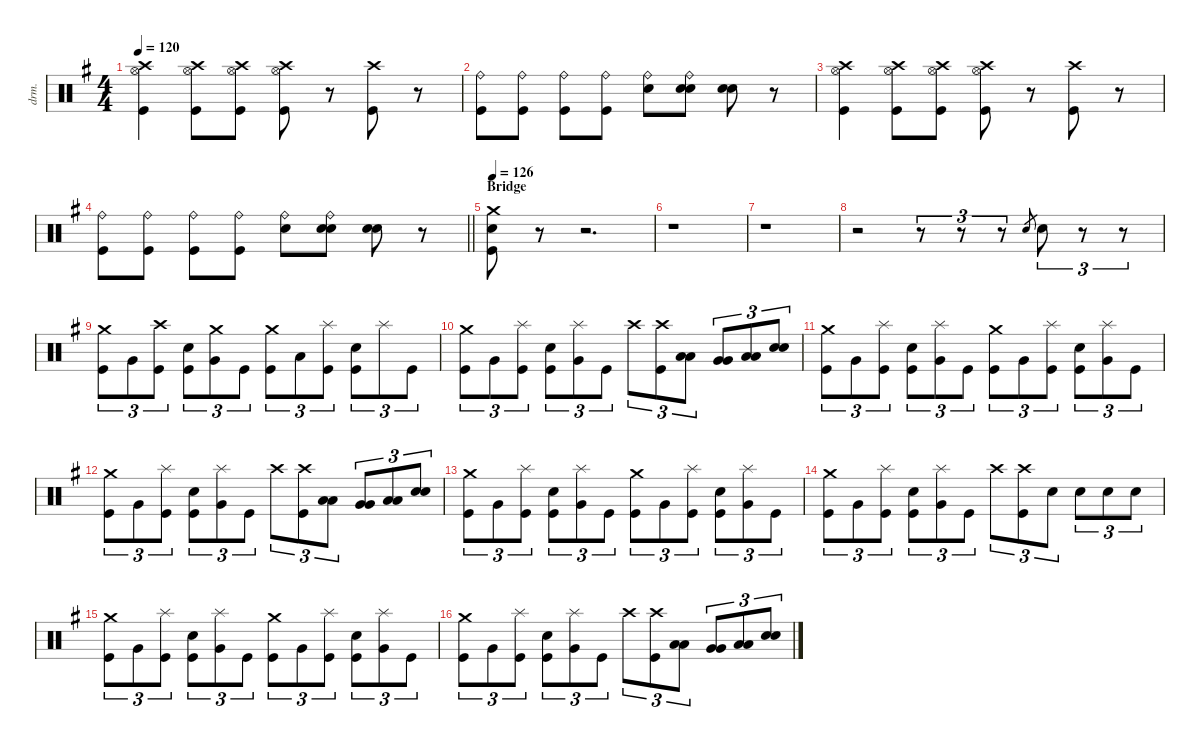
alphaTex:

\defaultSystemsLayout 4
\hideDynamics
\bracketExtendMode nobrackets
\track ("Drums (Bill Ward)" "drm.") {instrument percussion}
\staff {score}
\articulation defaults
\ts (4 4)
\tempo 120
\clef neutral
\ks g
("Crash high (hit)"{acc forcenatural} "Hi-Hat (open)"{acc forcenatural} "Kick (hit)"{acc forcenatural}).4{dy f} ("Crash high (hit)"{acc forcenatural} "Hi-Hat (open)"{acc forcenatural} "Kick (hit)"{acc forcenatural}).8 ("Crash high (hit)"{acc forcenatural} "Hi-Hat (open)"{acc forcenatural} "Kick (hit)"{acc forcenatural}).8 ("Crash high (hit)"{acc forcenatural} "Hi-Hat (open)"{acc forcenatural} "Kick (hit)"{acc forcenatural}).8 r.8 ("Crash high (hit)"{acc forcenatural} "Kick (hit)"{acc forcenatural}).8 r.8 |
("Ride (bell)"{acc forcenatural} "Kick (hit)"{acc forcenatural}).8 ("Ride (bell)"{acc forcenatural} "Kick (hit)"{acc forcenatural}).8 ("Ride (bell)"{acc forcenatural} "Kick (hit)"{acc forcenatural}).8 ("Ride (bell)"{acc forcenatural} "Kick (hit)"{acc forcenatural}).8 ("Ride (bell)"{acc forcenatural} "Snare (hit) 2"{acc forcenatural}).8 ("Ride (bell)"{acc forcenatural} "Snare (hit) 2"{acc forcenatural} "Snare (hit) 2"{acc forcenatural}).8 ("Snare (hit) 2"{acc forcenatural} "Snare (hit) 2"{acc forcenatural}).8{dy ff} r.8 |
("Crash high (hit)"{acc forcenatural} "Hi-Hat (open)"{acc forcenatural} "Kick (hit)"{acc forcenatural}).4{dy f} ("Crash high (hit)"{acc forcenatural} "Hi-Hat (open)"{acc forcenatural} "Kick (hit)"{acc forcenatural}).8 ("Crash high (hit)"{acc forcenatural} "Hi-Hat (open)"{acc forcenatural} "Kick (hit)"{acc forcenatural}).8 ("Crash high (hit)"{acc forcenatural} "Hi-Hat (open)"{acc forcenatural} "Kick (hit)"{acc forcenatural}).8 r.8 ("Crash high (hit)"{acc forcenatural} "Kick (hit)"{acc forcenatural}).8 r.8 |
\barLineRight lightlight
("Ride (bell)"{acc forcenatural} "Kick (hit)"{acc forcenatural}).8 ("Ride (bell)"{acc forcenatural} "Kick (hit)"{acc forcenatural}).8 ("Ride (bell)"{acc forcenatural} "Kick (hit)"{acc forcenatural}).8 ("Ride (bell)"{acc forcenatural} "Kick (hit)"{acc forcenatural}).8 ("Ride (bell)"{acc forcenatural} "Snare (hit) 2"{acc forcenatural}).8 ("Ride (bell)"{acc forcenatural} "Snare (hit) 2"{acc forcenatural} "Snare (hit) 2"{acc forcenatural}).8 ("Snare (hit) 2"{acc forcenatural} "Snare (hit) 2"{acc forcenatural}).8{dy ff} r.8 |
\section ("" "Bridge")
\tempo 126
("Crash medium (hit)"{acc forcenatural} "Snare (hit) 2"{acc forcenatural} "Kick (hit)"{acc forcenatural}).8{dy f} r.8 r.2{d} |
r.1 |
r.1 |
r.2 r.8{tu (3 2)} r.8{tu (3 2)} r.8{tu (3 2)} "Electric Snare (hit)"{acc forcenatural}.8{gr dy mf} "Snare (hit) 2"{acc forcenatural}.8{tu (3 2) dy f} r.8{tu (3 2)} r.8{tu (3 2)} |
("Crash medium (hit)"{acc forcenatural} "Kick (hit)"{acc forcenatural}).8{tu (3 2)} "Very Low Tom (hit)"{acc forcenatural}.8{tu (3 2)} ("Crash high (hit)"{acc forcenatural} "Kick (hit)"{acc forcenatural}).8{tu (3 2)} ("Snare (hit) 2"{acc forcenatural} "Kick (hit)"{acc forcenatural}).8{tu (3 2)} ("Crash medium (hit)"{acc forcenatural} "Very Low Tom (hit)"{acc forcenatural}).8{tu (3 2) dy mp} "Kick (hit)"{acc forcenatural}.8{tu (3 2) dy f} ("Crash medium (hit)"{acc forcenatural} "Kick (hit)"{acc forcenatural}).8{tu (3 2)} "Low Tom (hit)"{acc forcenatural}.8{tu (3 2)} ("Splash (hit)"{acc forcenatural} "Kick (hit)"{acc forcenatural}).8{tu (3 2)} ("Snare (hit) 2"{acc forcenatural} "Kick (hit)"{acc forcenatural}).8{tu (3 2)} "Splash (hit)"{acc forcenatural}.8{tu (3 2)} "Kick (hit)"{acc forcenatural}.8{tu (3 2)} |
("Crash medium (hit)"{acc forcenatural} "Kick (hit)"{acc forcenatural}).8{tu (3 2)} "Very Low Tom (hit)"{acc forcenatural}.8{tu (3 2)} ("Splash (hit)"{acc forcenatural} "Kick (hit)"{acc forcenatural}).8{tu (3 2)} ("Snare (hit) 2"{acc forcenatural} "Kick (hit)"{acc forcenatural}).8{tu (3 2)} ("Splash (hit)"{acc forcenatural} "Very Low Tom (hit)"{acc forcenatural}).8{tu (3 2)} "Kick (hit)"{acc forcenatural}.8{tu (3 2)} "Crash high (hit)"{acc forcenatural}.8{tu (3 2)} ("Crash high (hit)"{acc forcenatural} "Kick (hit)"{acc forcenatural}).8{tu (3 2)} ("Low Tom (hit)"{acc forcenatural} "Low Tom (hit)"{acc forcenatural}).8{tu (3 2)} ("Very Low Tom (hit)"{acc forcenatural} "Very Low Tom (hit)"{acc forcenatural}).8{tu (3 2)} ("Low Tom (hit)"{acc forcenatural} "Low Tom (hit)"{acc forcenatural}).8{tu (3 2)} ("Snare (hit) 2"{acc forcenatural} "Snare (hit) 2"{acc forcenatural}).8{tu (3 2)} |
("Crash medium (hit)"{acc forcenatural} "Kick (hit)"{acc forcenatural}).8{tu (3 2)} "Very Low Tom (hit)"{acc forcenatural}.8{tu (3 2)} ("Splash (hit)"{acc forcenatural} "Kick (hit)"{acc forcenatural}).8{tu (3 2)} ("Snare (hit) 2"{acc forcenatural} "Kick (hit)"{acc forcenatural}).8{tu (3 2)} ("Splash (hit)"{acc forcenatural} "Very Low Tom (hit)"{acc forcenatural}).8{tu (3 2)} "Kick (hit)"{acc forcenatural}.8{tu (3 2)} ("Crash medium (hit)"{acc forcenatural} "Kick (hit)"{acc forcenatural}).8{tu (3 2)} "Very Low Tom (hit)"{acc forcenatural}.8{tu (3 2)} ("Splash (hit)"{acc forcenatural} "Kick (hit)"{acc forcenatural}).8{tu (3 2)} ("Snare (hit) 2"{acc forcenatural} "Kick (hit)"{acc forcenatural}).8{tu (3 2)} ("Splash (hit)"{acc forcenatural} "Very Low Tom (hit)"{acc forcenatural}).8{tu (3 2)} "Kick (hit)"{acc forcenatural}.8{tu (3 2)} |
("Crash medium (hit)"{acc forcenatural} "Kick (hit)"{acc forcenatural}).8{tu (3 2)} "Very Low Tom (hit)"{acc forcenatural}.8{tu (3 2)} ("Splash (hit)"{acc forcenatural} "Kick (hit)"{acc forcenatural}).8{tu (3 2)} ("Snare (hit) 2"{acc forcenatural} "Kick (hit)"{acc forcenatural}).8{tu (3 2)} ("Splash (hit)"{acc forcenatural} "Very Low Tom (hit)"{acc forcenatural}).8{tu (3 2)} "Kick (hit)"{acc forcenatural}.8{tu (3 2)} "Crash high (hit)"{acc forcenatural}.8{tu (3 2)} ("Crash high (hit)"{acc forcenatural} "Kick (hit)"{acc forcenatural}).8{tu (3 2)} ("Low Tom (hit)"{acc forcenatural} "Low Tom (hit)"{acc forcenatural}).8{tu (3 2)} ("Very Low Tom (hit)"{acc forcenatural} "Very Low Tom (hit)"{acc forcenatural}).8{tu (3 2)} ("Low Tom (hit)"{acc forcenatural} "Low Tom (hit)"{acc forcenatural}).8{tu (3 2)} ("Snare (hit) 2"{acc forcenatural} "Snare (hit) 2"{acc forcenatural}).8{tu (3 2)} |
("Crash medium (hit)"{acc forcenatural} "Kick (hit)"{acc forcenatural}).8{tu (3 2)} "Very Low Tom (hit)"{acc forcenatural}.8{tu (3 2)} ("Splash (hit)"{acc forcenatural} "Kick (hit)"{acc forcenatural}).8{tu (3 2)} ("Snare (hit) 2"{acc forcenatural} "Kick (hit)"{acc forcenatural}).8{tu (3 2)} ("Splash (hit)"{acc forcenatural} "Very Low Tom (hit)"{acc forcenatural}).8{tu (3 2)} "Kick (hit)"{acc forcenatural}.8{tu (3 2)} ("Crash medium (hit)"{acc forcenatural} "Kick (hit)"{acc forcenatural}).8{tu (3 2)} "Very Low Tom (hit)"{acc forcenatural}.8{tu (3 2)} ("Splash (hit)"{acc forcenatural} "Kick (hit)"{acc forcenatural}).8{tu (3 2)} ("Snare (hit) 2"{acc forcenatural} "Kick (hit)"{acc forcenatural}).8{tu (3 2)} ("Splash (hit)"{acc forcenatural} "Very Low Tom (hit)"{acc forcenatural}).8{tu (3 2)} "Kick (hit)"{acc forcenatural}.8{tu (3 2)} |
("Crash medium (hit)"{acc forcenatural} "Kick (hit)"{acc forcenatural}).8{tu (3 2)} "Very Low Tom (hit)"{acc forcenatural}.8{tu (3 2)} ("Splash (hit)"{acc forcenatural} "Kick (hit)"{acc forcenatural}).8{tu (3 2)} ("Snare (hit) 2"{acc forcenatural} "Kick (hit)"{acc forcenatural}).8{tu (3 2)} ("Splash (hit)"{acc forcenatural} "Very Low Tom (hit)"{acc forcenatural}).8{tu (3 2)} "Kick (hit)"{acc forcenatural}.8{tu (3 2)} "Crash high (hit)"{acc forcenatural}.8{tu (3 2)} ("Crash high (hit)"{acc forcenatural} "Kick (hit)"{acc forcenatural}).8{tu (3 2)} "Snare (hit) 2"{acc forcenatural}.8{tu (3 2)} "Snare (hit) 2"{acc forcenatural}.8{tu (3 2)} "Snare (hit) 2"{acc forcenatural}.8{tu (3 2)} "Snare (hit) 2"{acc forcenatural}.8{tu (3 2)} |
("Crash medium (hit)"{acc forcenatural} "Kick (hit)"{acc forcenatural}).8{tu (3 2)} "Very Low Tom (hit)"{acc forcenatural}.8{tu (3 2)} ("Splash (hit)"{acc forcenatural} "Kick (hit)"{acc forcenatural}).8{tu (3 2)} ("Snare (hit) 2"{acc forcenatural} "Kick (hit)"{acc forcenatural}).8{tu (3 2)} ("Splash (hit)"{acc forcenatural} "Very Low Tom (hit)"{acc forcenatural}).8{tu (3 2)} "Kick (hit)"{acc forcenatural}.8{tu (3 2)} ("Crash medium (hit)"{acc forcenatural} "Kick (hit)"{acc forcenatural}).8{tu (3 2)} "Very Low Tom (hit)"{acc forcenatural}.8{tu (3 2)} ("Splash (hit)"{acc forcenatural} "Kick (hit)"{acc forcenatural}).8{tu (3 2)} ("Snare (hit) 2"{acc forcenatural} "Kick (hit)"{acc forcenatural}).8{tu (3 2)} ("Splash (hit)"{acc forcenatural} "Very Low Tom (hit)"{acc forcenatural}).8{tu (3 2)} "Kick (hit)"{acc forcenatural}.8{tu (3 2)} |
("Crash medium (hit)"{acc forcenatural} "Kick (hit)"{acc forcenatural}).8{tu (3 2)} "Very Low Tom (hit)"{acc forcenatural}.8{tu (3 2)} ("Splash (hit)"{acc forcenatural} "Kick (hit)"{acc forcenatural}).8{tu (3 2)} ("Snare (hit) 2"{acc forcenatural} "Kick (hit)"{acc forcenatural}).8{tu (3 2)} ("Splash (hit)"{acc forcenatural} "Very Low Tom (hit)"{acc forcenatural}).8{tu (3 2)} "Kick (hit)"{acc forcenatural}.8{tu (3 2)} "Crash high (hit)"{acc forcenatural}.8{tu (3 2)} ("Crash high (hit)"{acc forcenatural} "Kick (hit)"{acc forcenatural}).8{tu (3 2)} ("Low Tom (hit)"{acc forcenatural} "Low Tom (hit)"{acc forcenatural}).8{tu (3 2)} ("Very Low Tom (hit)"{acc forcenatural} "Very Low Tom (hit)"{acc forcenatural}).8{tu (3 2)} ("Low Tom (hit)"{acc forcenatural} "Low Tom (hit)"{acc forcenatural}).8{tu (3 2)} ("Snare (hit) 2"{acc forcenatural} "Snare (hit) 2"{acc forcenatural}).8{tu (3 2)}
